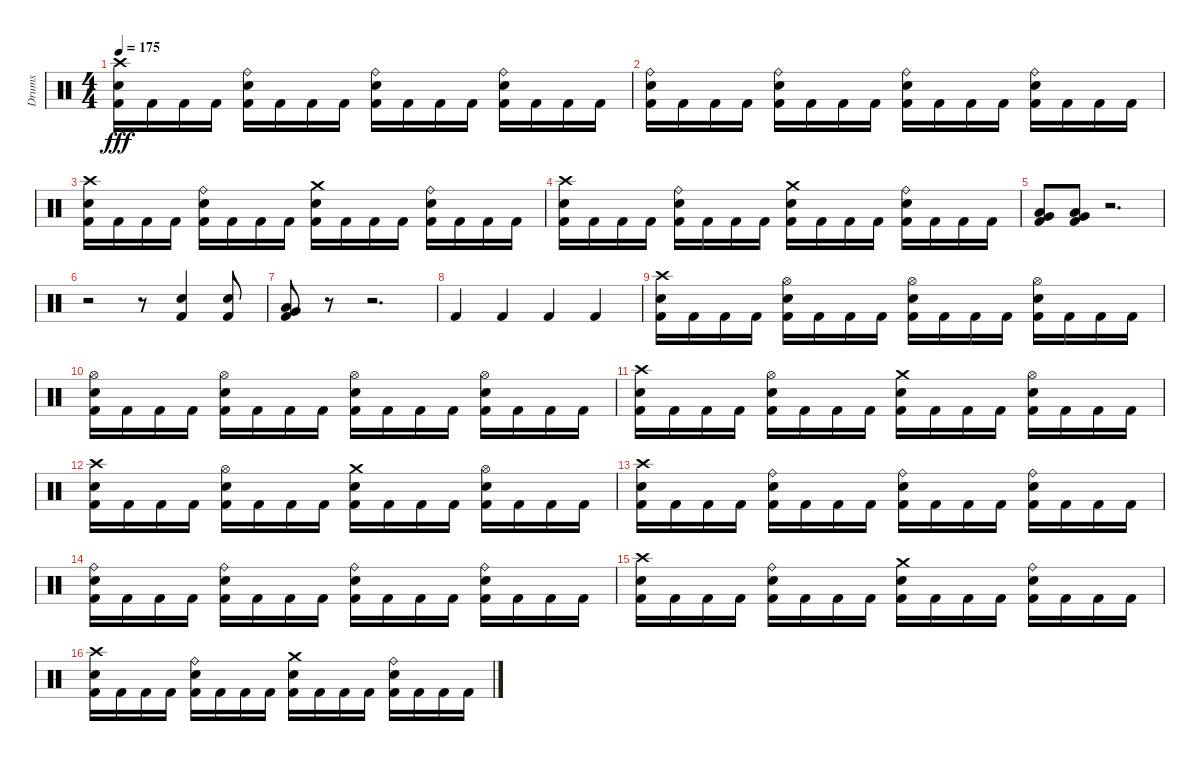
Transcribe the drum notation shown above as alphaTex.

\track ("Drums" "Drums") {instrument percussion}
\staff {score}
\articulation defaults
\ts (4 4)
\tempo 175
\clef neutral
\ks c
("Crash high (hit)" "Electric Snare (hit)" "Kick (hit) 2").16{dy fff} "Kick (hit) 2".16 "Kick (hit) 2".16 "Kick (hit) 2".16 ("Ride (bell)" "Electric Snare (hit)" "Kick (hit) 2").16 "Kick (hit) 2".16 "Kick (hit) 2".16 "Kick (hit) 2".16 ("Ride (bell)" "Electric Snare (hit)" "Kick (hit) 2").16 "Kick (hit) 2".16 "Kick (hit) 2".16 "Kick (hit) 2".16 ("Ride (bell)" "Electric Snare (hit)" "Kick (hit) 2").16 "Kick (hit) 2".16 "Kick (hit) 2".16 "Kick (hit) 2".16 |
("Ride (bell)" "Electric Snare (hit)" "Kick (hit) 2").16 "Kick (hit) 2".16 "Kick (hit) 2".16 "Kick (hit) 2".16 ("Ride (bell)" "Electric Snare (hit)" "Kick (hit) 2").16 "Kick (hit) 2".16 "Kick (hit) 2".16 "Kick (hit) 2".16 ("Ride (bell)" "Electric Snare (hit)" "Kick (hit) 2").16 "Kick (hit) 2".16 "Kick (hit) 2".16 "Kick (hit) 2".16 ("Ride (bell)" "Electric Snare (hit)" "Kick (hit) 2").16 "Kick (hit) 2".16 "Kick (hit) 2".16 "Kick (hit) 2".16 |
("Crash high (hit)" "Electric Snare (hit)" "Kick (hit) 2").16 "Kick (hit) 2".16 "Kick (hit) 2".16 "Kick (hit) 2".16 ("Ride (bell)" "Electric Snare (hit)" "Kick (hit) 2").16 "Kick (hit) 2".16 "Kick (hit) 2".16 "Kick (hit) 2".16 ("Crash medium (hit)" "Electric Snare (hit)" "Kick (hit) 2").16 "Kick (hit) 2".16 "Kick (hit) 2".16 "Kick (hit) 2".16 ("Ride (bell)" "Electric Snare (hit)" "Kick (hit) 2").16 "Kick (hit) 2".16 "Kick (hit) 2".16 "Kick (hit) 2".16 |
("Crash high (hit)" "Electric Snare (hit)" "Kick (hit) 2").16 "Kick (hit) 2".16 "Kick (hit) 2".16 "Kick (hit) 2".16 ("Ride (bell)" "Electric Snare (hit)" "Kick (hit) 2").16 "Kick (hit) 2".16 "Kick (hit) 2".16 "Kick (hit) 2".16 ("Crash medium (hit)" "Electric Snare (hit)" "Kick (hit) 2").16 "Kick (hit) 2".16 "Kick (hit) 2".16 "Kick (hit) 2".16 ("Ride (bell)" "Electric Snare (hit)" "Kick (hit) 2").16 "Kick (hit) 2".16 "Kick (hit) 2".16 "Kick (hit) 2".16 |
("Low Floor Tom (hit)" "Very Low Tom (hit)" "Kick (hit) 2").8 ("Low Floor Tom (hit)" "Very Low Tom (hit)" "Kick (hit) 2").8 r.2{d} |
r.2 r.8 ("Electric Snare (hit)" "Kick (hit) 2").4 ("Snare (hit) 2" "Kick (hit) 2").8 |
("Low Floor Tom (hit)" "Very Low Tom (hit)" "Kick (hit) 2").8 r.8 r.2{d} |
"Kick (hit) 2".4 "Kick (hit) 2".4 "Kick (hit) 2".4 "Kick (hit) 2".4 |
("Crash high (hit)" "Electric Snare (hit)" "Kick (hit) 2").16 "Kick (hit) 2".16 "Kick (hit) 2".16 "Kick (hit) 2".16 ("Hi-Hat (open)" "Electric Snare (hit)" "Kick (hit) 2").16 "Kick (hit) 2".16 "Kick (hit) 2".16 "Kick (hit) 2".16 ("Hi-Hat (open)" "Electric Snare (hit)" "Kick (hit) 2").16 "Kick (hit) 2".16 "Kick (hit) 2".16 "Kick (hit) 2".16 ("Hi-Hat (open)" "Electric Snare (hit)" "Kick (hit) 2").16 "Kick (hit) 2".16 "Kick (hit) 2".16 "Kick (hit) 2".16 |
("Hi-Hat (open)" "Electric Snare (hit)" "Kick (hit) 2").16 "Kick (hit) 2".16 "Kick (hit) 2".16 "Kick (hit) 2".16 ("Hi-Hat (open)" "Electric Snare (hit)" "Kick (hit) 2").16 "Kick (hit) 2".16 "Kick (hit) 2".16 "Kick (hit) 2".16 ("Hi-Hat (open)" "Electric Snare (hit)" "Kick (hit) 2").16 "Kick (hit) 2".16 "Kick (hit) 2".16 "Kick (hit) 2".16 ("Hi-Hat (open)" "Electric Snare (hit)" "Kick (hit) 2").16 "Kick (hit) 2".16 "Kick (hit) 2".16 "Kick (hit) 2".16 |
("Crash high (hit)" "Electric Snare (hit)" "Kick (hit) 2").16 "Kick (hit) 2".16 "Kick (hit) 2".16 "Kick (hit) 2".16 ("Hi-Hat (open)" "Electric Snare (hit)" "Kick (hit) 2").16 "Kick (hit) 2".16 "Kick (hit) 2".16 "Kick (hit) 2".16 ("Crash medium (hit)" "Electric Snare (hit)" "Kick (hit) 2").16 "Kick (hit) 2".16 "Kick (hit) 2".16 "Kick (hit) 2".16 ("Hi-Hat (open)" "Electric Snare (hit)" "Kick (hit) 2").16 "Kick (hit) 2".16 "Kick (hit) 2".16 "Kick (hit) 2".16 |
("Crash high (hit)" "Electric Snare (hit)" "Kick (hit) 2").16 "Kick (hit) 2".16 "Kick (hit) 2".16 "Kick (hit) 2".16 ("Hi-Hat (open)" "Electric Snare (hit)" "Kick (hit) 2").16 "Kick (hit) 2".16 "Kick (hit) 2".16 "Kick (hit) 2".16 ("Crash medium (hit)" "Electric Snare (hit)" "Kick (hit) 2").16 "Kick (hit) 2".16 "Kick (hit) 2".16 "Kick (hit) 2".16 ("Hi-Hat (open)" "Electric Snare (hit)" "Kick (hit) 2").16 "Kick (hit) 2".16 "Kick (hit) 2".16 "Kick (hit) 2".16 |
("Crash high (hit)" "Electric Snare (hit)" "Kick (hit) 2").16 "Kick (hit) 2".16 "Kick (hit) 2".16 "Kick (hit) 2".16 ("Ride (bell)" "Electric Snare (hit)" "Kick (hit) 2").16 "Kick (hit) 2".16 "Kick (hit) 2".16 "Kick (hit) 2".16 ("Ride (bell)" "Electric Snare (hit)" "Kick (hit) 2").16 "Kick (hit) 2".16 "Kick (hit) 2".16 "Kick (hit) 2".16 ("Ride (bell)" "Electric Snare (hit)" "Kick (hit) 2").16 "Kick (hit) 2".16 "Kick (hit) 2".16 "Kick (hit) 2".16 |
("Ride (bell)" "Electric Snare (hit)" "Kick (hit) 2").16 "Kick (hit) 2".16 "Kick (hit) 2".16 "Kick (hit) 2".16 ("Ride (bell)" "Electric Snare (hit)" "Kick (hit) 2").16 "Kick (hit) 2".16 "Kick (hit) 2".16 "Kick (hit) 2".16 ("Ride (bell)" "Electric Snare (hit)" "Kick (hit) 2").16 "Kick (hit) 2".16 "Kick (hit) 2".16 "Kick (hit) 2".16 ("Ride (bell)" "Electric Snare (hit)" "Kick (hit) 2").16 "Kick (hit) 2".16 "Kick (hit) 2".16 "Kick (hit) 2".16 |
("Crash high (hit)" "Electric Snare (hit)" "Kick (hit) 2").16 "Kick (hit) 2".16 "Kick (hit) 2".16 "Kick (hit) 2".16 ("Ride (bell)" "Electric Snare (hit)" "Kick (hit) 2").16 "Kick (hit) 2".16 "Kick (hit) 2".16 "Kick (hit) 2".16 ("Crash medium (hit)" "Electric Snare (hit)" "Kick (hit) 2").16 "Kick (hit) 2".16 "Kick (hit) 2".16 "Kick (hit) 2".16 ("Ride (bell)" "Electric Snare (hit)" "Kick (hit) 2").16 "Kick (hit) 2".16 "Kick (hit) 2".16 "Kick (hit) 2".16 |
("Crash high (hit)" "Electric Snare (hit)" "Kick (hit) 2").16 "Kick (hit) 2".16 "Kick (hit) 2".16 "Kick (hit) 2".16 ("Ride (bell)" "Electric Snare (hit)" "Kick (hit) 2").16 "Kick (hit) 2".16 "Kick (hit) 2".16 "Kick (hit) 2".16 ("Crash medium (hit)" "Electric Snare (hit)" "Kick (hit) 2").16 "Kick (hit) 2".16 "Kick (hit) 2".16 "Kick (hit) 2".16 ("Ride (bell)" "Electric Snare (hit)" "Kick (hit) 2").16 "Kick (hit) 2".16 "Kick (hit) 2".16 "Kick (hit) 2".16
